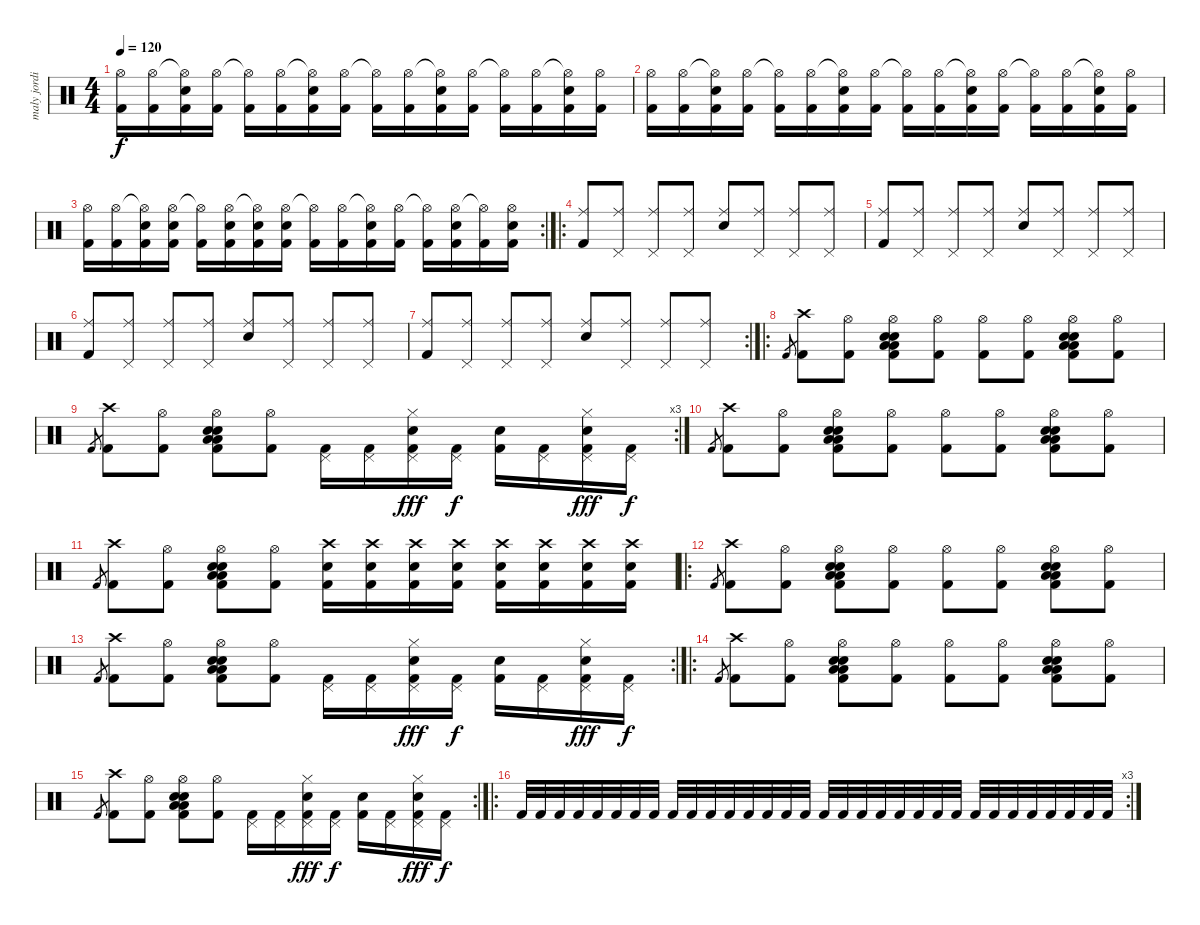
\track ("maly jordison - Battery" "maly jordi") {instrument percussion}
\staff {score}
\articulation defaults
\ts (4 4)
\tempo 120
\clef neutral
\ks c
("Hi-Hat (open)" "Kick (hit) 2").16{dy f} ("Hi-Hat (open)" "Kick (hit) 2").16 ("Hi-Hat (open)"{t} "Electric Snare (hit)" "Kick (hit) 2").16 ("Hi-Hat (open)" "Kick (hit) 2").16 ("Hi-Hat (open)"{t} "Kick (hit) 2").16 ("Hi-Hat (open)" "Kick (hit) 2").16 ("Hi-Hat (open)"{t} "Electric Snare (hit)" "Kick (hit) 2").16 ("Hi-Hat (open)" "Kick (hit) 2").16 ("Hi-Hat (open)"{t} "Kick (hit) 2").16 ("Hi-Hat (open)" "Kick (hit) 2").16 ("Hi-Hat (open)"{t} "Electric Snare (hit)" "Kick (hit) 2").16 ("Hi-Hat (open)" "Kick (hit) 2").16 ("Hi-Hat (open)"{t} "Kick (hit) 2").16 ("Hi-Hat (open)" "Kick (hit) 2").16 ("Hi-Hat (open)"{t} "Electric Snare (hit)" "Kick (hit) 2").16 ("Hi-Hat (open)" "Kick (hit) 2").16 |
("Hi-Hat (open)" "Kick (hit) 2").16 ("Hi-Hat (open)" "Kick (hit) 2").16 ("Hi-Hat (open)"{t} "Electric Snare (hit)" "Kick (hit) 2").16 ("Hi-Hat (open)" "Kick (hit) 2").16 ("Hi-Hat (open)"{t} "Kick (hit) 2").16 ("Hi-Hat (open)" "Kick (hit) 2").16 ("Hi-Hat (open)"{t} "Electric Snare (hit)" "Kick (hit) 2").16 ("Hi-Hat (open)" "Kick (hit) 2").16 ("Hi-Hat (open)"{t} "Kick (hit) 2").16 ("Hi-Hat (open)" "Kick (hit) 2").16 ("Hi-Hat (open)"{t} "Electric Snare (hit)" "Kick (hit) 2").16 ("Hi-Hat (open)" "Kick (hit) 2").16 ("Hi-Hat (open)"{t} "Kick (hit) 2").16 ("Hi-Hat (open)" "Kick (hit) 2").16 ("Hi-Hat (open)"{t} "Electric Snare (hit)" "Kick (hit) 2").16 ("Hi-Hat (open)" "Kick (hit) 2").16 |
\rc 2
("Hi-Hat (open)" "Kick (hit) 2").16 ("Hi-Hat (open)" "Kick (hit) 2").16 ("Hi-Hat (open)"{t} "Electric Snare (hit)" "Kick (hit) 2").16 ("Hi-Hat (open)" "Electric Snare (hit)" "Kick (hit) 2").16 ("Hi-Hat (open)"{t} "Kick (hit) 2").16 ("Hi-Hat (open)" "Electric Snare (hit)" "Kick (hit) 2").16 ("Hi-Hat (open)"{t} "Electric Snare (hit)" "Kick (hit) 2").16 ("Hi-Hat (open)" "Electric Snare (hit)" "Kick (hit) 2").16 ("Hi-Hat (open)"{t} "Kick (hit) 2").16 ("Hi-Hat (open)" "Kick (hit) 2").16 ("Hi-Hat (open)"{t} "Electric Snare (hit)" "Kick (hit) 2").16 ("Hi-Hat (open)" "Kick (hit) 2").16 ("Hi-Hat (open)"{t} "Kick (hit) 2").16 ("Hi-Hat (open)" "Electric Snare (hit)" "Kick (hit) 2").16 ("Hi-Hat (open)"{t} "Kick (hit) 2").16 ("Hi-Hat (open)" "Electric Snare (hit)" "Kick (hit) 2").16 |
\ro
("Ride (middle)" "Kick (hit) 2").8 ("Ride (middle)" "Pedal Hi-Hat (hit)").8 ("Ride (middle)" "Pedal Hi-Hat (hit)").8 ("Ride (middle)" "Pedal Hi-Hat (hit)").8 ("Ride (middle)" "Electric Snare (hit)").8 ("Ride (middle)" "Pedal Hi-Hat (hit)").8 ("Ride (middle)" "Pedal Hi-Hat (hit)").8 ("Ride (middle)" "Pedal Hi-Hat (hit)").8 |
("Ride (middle)" "Kick (hit) 2").8 ("Ride (middle)" "Pedal Hi-Hat (hit)").8 ("Ride (middle)" "Pedal Hi-Hat (hit)").8 ("Ride (middle)" "Pedal Hi-Hat (hit)").8 ("Ride (middle)" "Electric Snare (hit)").8 ("Ride (middle)" "Pedal Hi-Hat (hit)").8 ("Ride (middle)" "Pedal Hi-Hat (hit)").8 ("Ride (middle)" "Pedal Hi-Hat (hit)").8 |
("Ride (middle)" "Kick (hit) 2").8 ("Ride (middle)" "Pedal Hi-Hat (hit)").8 ("Ride (middle)" "Pedal Hi-Hat (hit)").8 ("Ride (middle)" "Pedal Hi-Hat (hit)").8 ("Ride (middle)" "Electric Snare (hit)").8 ("Ride (middle)" "Pedal Hi-Hat (hit)").8 ("Ride (middle)" "Pedal Hi-Hat (hit)").8 ("Ride (middle)" "Pedal Hi-Hat (hit)").8 |
\rc 2
("Ride (middle)" "Kick (hit) 2").8 ("Ride (middle)" "Pedal Hi-Hat (hit)").8 ("Ride (middle)" "Pedal Hi-Hat (hit)").8 ("Ride (middle)" "Pedal Hi-Hat (hit)").8 ("Ride (middle)" "Electric Snare (hit)").8 ("Ride (middle)" "Pedal Hi-Hat (hit)").8 ("Ride (middle)" "Pedal Hi-Hat (hit)").8 ("Ride (middle)" "Pedal Hi-Hat (hit)").8 |
\ro "Kick (hit) 2".8{gr}
("Crash high (hit)" "Kick (hit) 2").8 ("Hi-Hat (open)" "Kick (hit) 2").8 ("Hi-Hat (open)" "Low Floor Tom (hit)" "Kick (hit) 2" "Electric Snare (hit)" "Low Floor Tom (hit)" "Electric Snare (hit)").8 ("Hi-Hat (open)" "Kick (hit) 2").8 ("Hi-Hat (open)" "Kick (hit) 2").8 ("Hi-Hat (open)" "Kick (hit) 2").8 ("Hi-Hat (open)" "Low Floor Tom (hit)" "Kick (hit) 2" "Electric Snare (hit)" "Low Floor Tom (hit)" "Electric Snare (hit)").8 ("Hi-Hat (open)" "Kick (hit) 2").8 |
\rc 3 "Kick (hit) 2".8{gr}
("Crash high (hit)" "Kick (hit) 2").8 ("Hi-Hat (open)" "Kick (hit) 2").8 ("Hi-Hat (open)" "Low Floor Tom (hit)" "Kick (hit) 2" "Electric Snare (hit)" "Low Floor Tom (hit)" "Electric Snare (hit)").8 ("Hi-Hat (open)" "Kick (hit) 2").8 ("Pedal Hi-Hat (hit)" "Kick (hit) 2").16 ("Pedal Hi-Hat (hit)" "Kick (hit) 2").16 ("Pedal Hi-Hat (hit)" "Hi-Hat (closed)" "Electric Snare (hit)" "Kick (hit) 2").16{dy fff} ("Pedal Hi-Hat (hit)" "Kick (hit) 2").16{dy f} ("Snare (hit)" "Kick (hit) 2").16 ("Pedal Hi-Hat (hit)" "Kick (hit) 2").16 ("Pedal Hi-Hat (hit)" "Hi-Hat (closed)" "Electric Snare (hit)" "Kick (hit) 2").16{dy fff} ("Pedal Hi-Hat (hit)" "Kick (hit) 2").16{dy f} |
"Kick (hit) 2".8{gr} ("Crash high (hit)" "Kick (hit) 2").8 ("Hi-Hat (open)" "Kick (hit) 2").8 ("Hi-Hat (open)" "Low Floor Tom (hit)" "Kick (hit) 2" "Electric Snare (hit)" "Low Floor Tom (hit)" "Electric Snare (hit)").8 ("Hi-Hat (open)" "Kick (hit) 2").8 ("Hi-Hat (open)" "Kick (hit) 2").8 ("Hi-Hat (open)" "Kick (hit) 2").8 ("Hi-Hat (open)" "Low Floor Tom (hit)" "Kick (hit) 2" "Electric Snare (hit)" "Low Floor Tom (hit)" "Electric Snare (hit)").8 ("Hi-Hat (open)" "Kick (hit) 2").8 |
"Kick (hit) 2".8{gr} ("Crash high (hit)" "Kick (hit) 2").8 ("Hi-Hat (open)" "Kick (hit) 2").8 ("Hi-Hat (open)" "Low Floor Tom (hit)" "Kick (hit) 2" "Electric Snare (hit)" "Low Floor Tom (hit)" "Electric Snare (hit)").8 ("Hi-Hat (open)" "Kick (hit) 2").8 ("Crash high (hit)" "Electric Snare (hit)" "Kick (hit) 2").16 ("Crash high (hit)" "Electric Snare (hit)" "Kick (hit) 2").16 ("Crash high (hit)" "Electric Snare (hit)" "Kick (hit) 2").16 ("Crash high (hit)" "Electric Snare (hit)" "Kick (hit) 2").16 ("Crash high (hit)" "Electric Snare (hit)" "Kick (hit) 2").16 ("Crash high (hit)" "Electric Snare (hit)" "Kick (hit) 2").16 ("Crash high (hit)" "Electric Snare (hit)" "Kick (hit) 2").16 ("Crash high (hit)" "Electric Snare (hit)" "Kick (hit) 2").16 |
\ro "Kick (hit) 2".8{gr}
("Crash high (hit)" "Kick (hit) 2").8 ("Hi-Hat (open)" "Kick (hit) 2").8 ("Hi-Hat (open)" "Low Floor Tom (hit)" "Kick (hit) 2" "Electric Snare (hit)" "Low Floor Tom (hit)" "Electric Snare (hit)").8 ("Hi-Hat (open)" "Kick (hit) 2").8 ("Hi-Hat (open)" "Kick (hit) 2").8 ("Hi-Hat (open)" "Kick (hit) 2").8 ("Hi-Hat (open)" "Low Floor Tom (hit)" "Kick (hit) 2" "Electric Snare (hit)" "Low Floor Tom (hit)" "Electric Snare (hit)").8 ("Hi-Hat (open)" "Kick (hit) 2").8 |
\rc 2 "Kick (hit) 2".8{gr}
("Crash high (hit)" "Kick (hit) 2").8 ("Hi-Hat (open)" "Kick (hit) 2").8 ("Hi-Hat (open)" "Low Floor Tom (hit)" "Kick (hit) 2" "Electric Snare (hit)" "Low Floor Tom (hit)" "Electric Snare (hit)").8 ("Hi-Hat (open)" "Kick (hit) 2").8 ("Pedal Hi-Hat (hit)" "Kick (hit) 2").16 ("Pedal Hi-Hat (hit)" "Kick (hit) 2").16 ("Pedal Hi-Hat (hit)" "Hi-Hat (closed)" "Electric Snare (hit)" "Kick (hit) 2").16{dy fff} ("Pedal Hi-Hat (hit)" "Kick (hit) 2").16{dy f} ("Snare (hit)" "Kick (hit) 2").16 ("Pedal Hi-Hat (hit)" "Kick (hit) 2").16 ("Pedal Hi-Hat (hit)" "Hi-Hat (closed)" "Electric Snare (hit)" "Kick (hit) 2").16{dy fff} ("Pedal Hi-Hat (hit)" "Kick (hit) 2").16{dy f} |
\ro "Kick (hit) 2".8{gr}
("Crash high (hit)" "Kick (hit) 2").8 ("Hi-Hat (open)" "Kick (hit) 2").8 ("Hi-Hat (open)" "Low Floor Tom (hit)" "Kick (hit) 2" "Electric Snare (hit)" "Low Floor Tom (hit)" "Electric Snare (hit)").8 ("Hi-Hat (open)" "Kick (hit) 2").8 ("Hi-Hat (open)" "Kick (hit) 2").8 ("Hi-Hat (open)" "Kick (hit) 2").8 ("Hi-Hat (open)" "Low Floor Tom (hit)" "Kick (hit) 2" "Electric Snare (hit)" "Low Floor Tom (hit)" "Electric Snare (hit)").8 ("Hi-Hat (open)" "Kick (hit) 2").8 |
\rc 2 "Kick (hit) 2".8{gr}
("Crash high (hit)" "Kick (hit) 2").8 ("Hi-Hat (open)" "Kick (hit) 2").8 ("Hi-Hat (open)" "Low Floor Tom (hit)" "Kick (hit) 2" "Electric Snare (hit)" "Low Floor Tom (hit)" "Electric Snare (hit)").8 ("Hi-Hat (open)" "Kick (hit) 2").8 ("Pedal Hi-Hat (hit)" "Kick (hit) 2").16 ("Pedal Hi-Hat (hit)" "Kick (hit) 2").16 ("Pedal Hi-Hat (hit)" "Hi-Hat (closed)" "Electric Snare (hit)" "Kick (hit) 2").16{dy fff} ("Pedal Hi-Hat (hit)" "Kick (hit) 2").16{dy f} ("Snare (hit)" "Kick (hit) 2").16 ("Pedal Hi-Hat (hit)" "Kick (hit) 2").16 ("Pedal Hi-Hat (hit)" "Hi-Hat (closed)" "Electric Snare (hit)" "Kick (hit) 2").16{dy fff} ("Pedal Hi-Hat (hit)" "Kick (hit) 2").16{dy f} |
\ro
\rc 3 "Kick (hit) 2".32 "Kick (hit) 2".32 "Kick (hit) 2".32 "Kick (hit) 2".32 "Kick (hit) 2".32 "Kick (hit) 2".32 "Kick (hit) 2".32 "Kick (hit) 2".32 "Kick (hit) 2".32 "Kick (hit) 2".32 "Kick (hit) 2".32 "Kick (hit) 2".32 "Kick (hit) 2".32 "Kick (hit) 2".32 "Kick (hit) 2".32 "Kick (hit) 2".32 "Kick (hit) 2".32 "Kick (hit) 2".32 "Kick (hit) 2".32 "Kick (hit) 2".32 "Kick (hit) 2".32 "Kick (hit) 2".32 "Kick (hit) 2".32 "Kick (hit) 2".32 "Kick (hit) 2".32 "Kick (hit) 2".32 "Kick (hit) 2".32 "Kick (hit) 2".32 "Kick (hit) 2".32 "Kick (hit) 2".32 "Kick (hit) 2".32 "Kick (hit) 2".32
